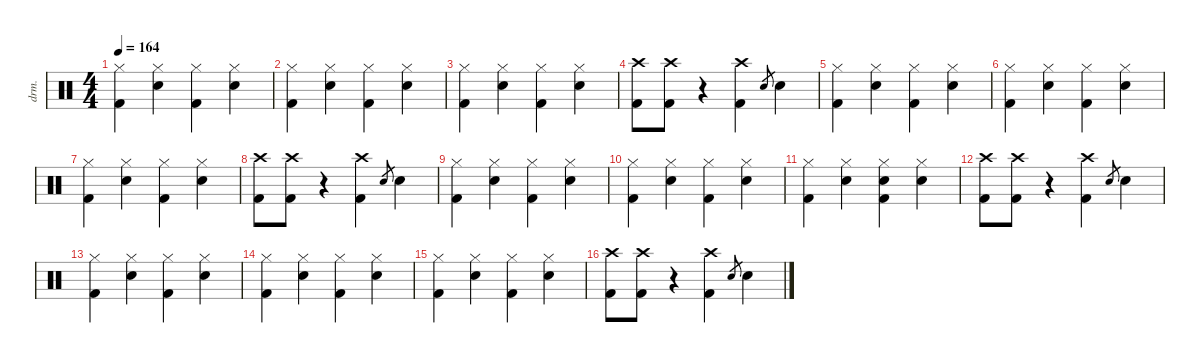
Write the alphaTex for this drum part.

\defaultSystemsLayout 4
\hideDynamics
\bracketExtendMode nobrackets
\track ("Drums" "drm.") {instrument percussion}
\staff {score}
\articulation defaults
\ts (4 4)
\tempo 164
\clef neutral
\ks c
("Hi-Hat (closed)" "Kick (hit) 2").4{dy f} ("Hi-Hat (closed)" "Snare (hit) 2").4 ("Hi-Hat (closed)" "Kick (hit) 2").4 ("Hi-Hat (closed)" "Snare (hit) 2").4 |
("Hi-Hat (closed)" "Kick (hit) 2").4 ("Hi-Hat (closed)" "Snare (hit) 2").4 ("Hi-Hat (closed)" "Kick (hit) 2").4 ("Hi-Hat (closed)" "Snare (hit) 2").4 |
("Hi-Hat (closed)" "Kick (hit) 2").4 ("Hi-Hat (closed)" "Snare (hit) 2").4 ("Hi-Hat (closed)" "Kick (hit) 2").4 ("Hi-Hat (closed)" "Snare (hit) 2").4 |
("Crash high (hit)" "Kick (hit) 2").8{dy fff} ("Crash high (hit)" "Kick (hit) 2").8 r.4 ("Crash high (hit)" "Kick (hit) 2").4 "Snare (hit) 2".8{gr dy mf} "Snare (hit) 2".4{dy f} |
("Hi-Hat (closed)" "Kick (hit) 2").4 ("Hi-Hat (closed)" "Snare (hit) 2").4 ("Hi-Hat (closed)" "Kick (hit) 2").4 ("Hi-Hat (closed)" "Snare (hit) 2").4 |
("Hi-Hat (closed)" "Kick (hit) 2").4 ("Hi-Hat (closed)" "Snare (hit) 2").4 ("Hi-Hat (closed)" "Kick (hit) 2").4 ("Hi-Hat (closed)" "Snare (hit) 2").4 |
("Hi-Hat (closed)" "Kick (hit) 2").4 ("Hi-Hat (closed)" "Snare (hit) 2").4 ("Hi-Hat (closed)" "Kick (hit) 2").4 ("Hi-Hat (closed)" "Snare (hit) 2").4 |
("Crash high (hit)" "Kick (hit) 2").8{dy fff} ("Crash high (hit)" "Kick (hit) 2").8 r.4 ("Crash high (hit)" "Kick (hit) 2").4 "Snare (hit) 2".8{gr dy mf} "Snare (hit) 2".4{dy f} |
("Hi-Hat (closed)" "Kick (hit) 2").4 ("Hi-Hat (closed)" "Snare (hit) 2").4 ("Hi-Hat (closed)" "Kick (hit) 2").4 ("Hi-Hat (closed)" "Snare (hit) 2").4 |
("Hi-Hat (closed)" "Kick (hit) 2").4 ("Hi-Hat (closed)" "Snare (hit) 2").4 ("Hi-Hat (closed)" "Kick (hit) 2").4 ("Hi-Hat (closed)" "Snare (hit) 2").4 |
("Hi-Hat (closed)" "Kick (hit) 2").4 ("Hi-Hat (closed)" "Snare (hit) 2").4 ("Hi-Hat (closed)" "Snare (hit) 2" "Kick (hit) 2").4 ("Hi-Hat (closed)" "Snare (hit) 2").4 |
("Crash high (hit)" "Kick (hit) 2").8{dy fff} ("Crash high (hit)" "Kick (hit) 2").8 r.4 ("Crash high (hit)" "Kick (hit) 2").4 "Snare (hit) 2".8{gr dy mf} "Snare (hit) 2".4{dy f} |
("Hi-Hat (closed)" "Kick (hit) 2").4 ("Hi-Hat (closed)" "Snare (hit) 2").4 ("Hi-Hat (closed)" "Kick (hit) 2").4 ("Hi-Hat (closed)" "Snare (hit) 2").4 |
("Hi-Hat (closed)" "Kick (hit) 2").4 ("Hi-Hat (closed)" "Snare (hit) 2").4 ("Hi-Hat (closed)" "Kick (hit) 2").4 ("Hi-Hat (closed)" "Snare (hit) 2").4 |
("Hi-Hat (closed)" "Kick (hit) 2").4 ("Hi-Hat (closed)" "Snare (hit) 2").4 ("Hi-Hat (closed)" "Kick (hit) 2").4 ("Hi-Hat (closed)" "Snare (hit) 2").4 |
("Crash high (hit)" "Kick (hit) 2").8{dy fff} ("Crash high (hit)" "Kick (hit) 2").8 r.4 ("Crash high (hit)" "Kick (hit) 2").4 "Snare (hit) 2".8{gr dy mf} "Snare (hit) 2".4{dy f}
